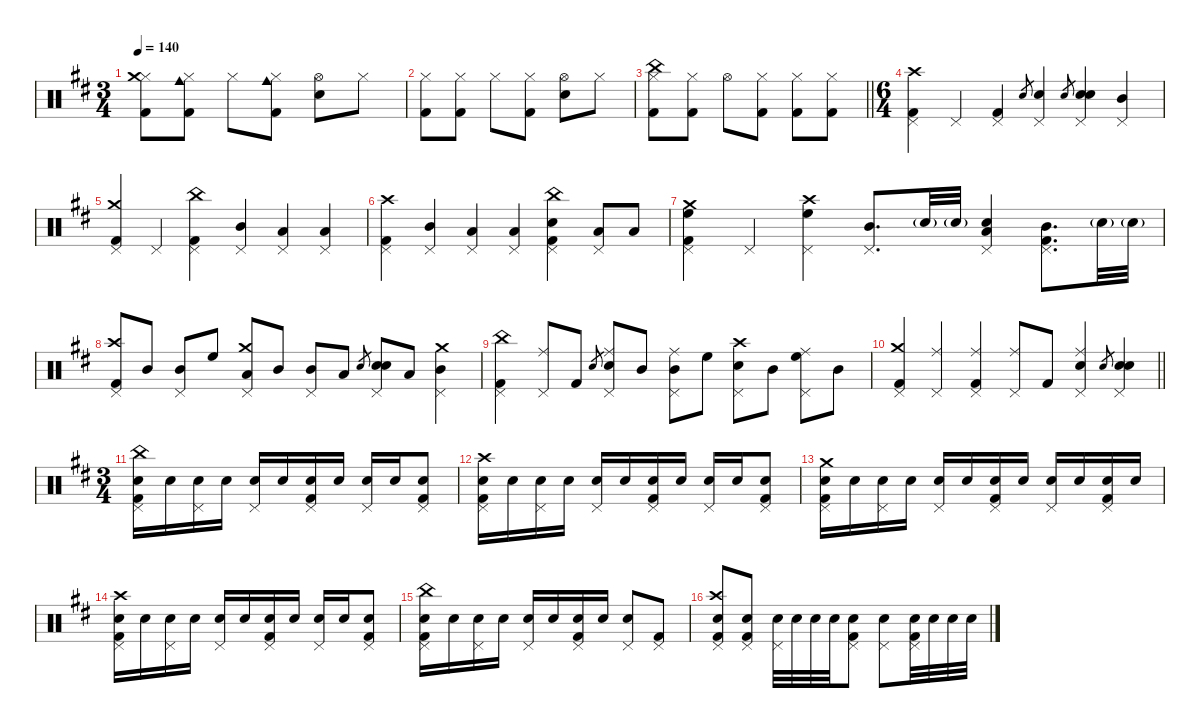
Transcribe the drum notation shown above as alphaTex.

\defaultSystemsLayout 4
\hideDynamics
\bracketExtendMode nobrackets
\singleTrackTrackNamePolicy hidden
\multiTrackTrackNamePolicy hidden
\otherSystemsTrackNameOrientation horizontal
\track ("Percussions" "drm.") {instrument percussion}
\staff {score}
\articulation defaults
\ts (3 4)
\tempo 140
\clef neutral
\ks d
("Hi-Hat (closed)"{acc forcenatural} "Crash medium (hit)"{acc forcenatural} "Kick (hit) 2"{acc forcenatural}).8{dy f beam Down} ("Hi-Hat (closed)"{acc forcenatural} "Cowbell medium (hit)"{acc forcenatural} "Kick (hit) 2"{acc forcenatural}).8{beam Down} "Hi-Hat (closed)"{acc forcenatural}.8{beam Down} ("Hi-Hat (closed)"{acc forcenatural} "Cowbell medium (hit)"{acc forcenatural} "Kick (hit) 2"{acc forcenatural}).8{beam Down} ("Hi-Hat (open)"{acc forcenatural} "Snare (hit) 2"{acc forcenatural}).8{beam Down} "Hi-Hat (closed)"{acc forcenatural}.8{beam Down} |
("Hi-Hat (closed)"{acc forcenatural} "Kick (hit) 2"{acc forcenatural}).8{beam Down} ("Hi-Hat (closed)"{acc forcenatural} "Kick (hit) 2"{acc forcenatural}).8{beam Down} "Hi-Hat (closed)"{acc forcenatural}.8{beam Down} ("Hi-Hat (closed)"{acc forcenatural} "Kick (hit) 2"{acc forcenatural}).8{beam Down} ("Hi-Hat (open)"{acc forcenatural} "Snare (hit) 2"{acc forcenatural}).8{beam Down} "Hi-Hat (closed)"{acc forcenatural}.8{beam Down} |
\barLineRight lightlight
("Hi-Hat (closed)"{acc forcenatural} "China (hit)"{acc forcenatural} "Kick (hit) 2"{acc forcenatural}).8{beam Down} ("Hi-Hat (closed)"{acc forcenatural} "Kick (hit) 2"{acc forcenatural}).8{beam Down} "Hi-Hat (open)"{acc forcenatural}.8{beam Down} ("Hi-Hat (closed)"{acc forcenatural} "Kick (hit) 2"{acc forcenatural}).8{beam Down} ("Hi-Hat (closed)"{acc forcenatural} "Kick (hit) 2"{acc forcenatural}).8{beam Down} ("Hi-Hat (closed)"{acc forcenatural} "Kick (hit) 2"{acc forcenatural}).8{beam Down} |
\ts (6 4)
("Pedal Hi-Hat (hit)"{acc forcenatural} "Crash high (hit)"{acc forcenatural} "Kick (hit) 2"{acc forcenatural}).4{beam Down} "Pedal Hi-Hat (hit)"{acc forcenatural}.4{beam Up} ("Pedal Hi-Hat (hit)"{acc forcenatural} "Kick (hit) 2"{acc forcenatural}).4{beam Up} "Snare (hit) 2"{acc forcenatural}.8{gr dy mf beam Up} ("Pedal Hi-Hat (hit)"{acc forcenatural} "Snare (hit) 2"{acc forcenatural}).4{dy f beam Up} "Snare (hit) 2"{acc forcenatural}.8{gr dy mf beam Up} ("Pedal Hi-Hat (hit)"{acc forcenatural} "Snare (hit) 2"{acc forcenatural} "Snare (hit) 2"{acc forcenatural}).4{dy f beam Up} ("Pedal Hi-Hat (hit)"{acc forcenatural} "Mid Tom (hit)"{acc forcenatural}).4{beam Up} |
("Pedal Hi-Hat (hit)"{acc forcenatural} "Crash medium (hit)"{acc forcenatural} "Kick (hit) 2"{acc forcenatural}).4{beam Up} "Pedal Hi-Hat (hit)"{acc forcenatural}.4{beam Up} ("Pedal Hi-Hat (hit)"{acc forcenatural} "China (hit)"{acc forcenatural} "Kick (hit) 2"{acc forcenatural}).4{beam Down} ("Pedal Hi-Hat (hit)"{acc forcenatural} "Mid Tom (hit)"{acc forcenatural}).4{beam Up} ("Pedal Hi-Hat (hit)"{acc forcenatural} "Low Tom (hit)"{acc forcenatural}).4{beam Up} ("Pedal Hi-Hat (hit)"{acc forcenatural} "Low Tom (hit)"{acc forcenatural}).4{beam Up} |
("Pedal Hi-Hat (hit)"{acc forcenatural} "Crash high (hit)"{acc forcenatural} "Kick (hit) 2"{acc forcenatural}).4{beam Down} ("Pedal Hi-Hat (hit)"{acc forcenatural} "Mid Tom (hit)"{acc forcenatural}).4{beam Up} ("Pedal Hi-Hat (hit)"{acc forcenatural} "Low Tom (hit)"{acc forcenatural}).4{beam Up} ("Pedal Hi-Hat (hit)"{acc forcenatural} "Low Tom (hit)"{acc forcenatural}).4{beam Up} ("Pedal Hi-Hat (hit)"{acc forcenatural} "China (hit)"{acc forcenatural} "Snare (hit) 2"{acc forcenatural} "Kick (hit) 2"{acc forcenatural}).4{beam Down} ("Pedal Hi-Hat (hit)"{acc forcenatural} "Low Tom (hit)"{acc forcenatural}).8{beam Up} "Low Floor Tom (hit)"{acc forcenatural}.8{beam Up} |
("Pedal Hi-Hat (hit)"{acc forcenatural} "Crash medium (hit)"{acc forcenatural} "High Floor Tom (hit)"{acc forcenatural} "Kick (hit) 2"{acc forcenatural}).4{beam Down} "Pedal Hi-Hat (hit)"{acc forcenatural}.4{beam Up} ("Pedal Hi-Hat (hit)"{acc forcenatural} "Crash high (hit)"{acc forcenatural} "High Floor Tom (hit)"{acc forcenatural}).4{beam Down} ("Pedal Hi-Hat (hit)"{acc forcenatural} "Mid Tom (hit)"{acc forcenatural}).8{d beam Up} "Snare (hit) 2"{g acc forcenatural}.32{beam Up} "Snare (hit) 2"{g acc forcenatural}.32{beam Up} ("Pedal Hi-Hat (hit)"{acc forcenatural} "Low Tom (hit)"{acc forcenatural} "Snare (hit) 2"{acc forcenatural}).4{beam Up} ("Pedal Hi-Hat (hit)"{acc forcenatural} "Mid Tom (hit)"{acc forcenatural} "Kick (hit) 2"{acc forcenatural}).8{d beam Down} "Snare (hit) 2"{g acc forcenatural}.32{beam Down} "Snare (hit) 2"{g acc forcenatural}.32{beam Down} |
("Pedal Hi-Hat (hit)"{acc forcenatural} "Crash high (hit)"{acc forcenatural} "Kick (hit) 2"{acc forcenatural}).8{beam Up} "Mid Tom (hit)"{acc forcenatural}.8{beam Up} ("Pedal Hi-Hat (hit)"{acc forcenatural} "Mid Tom (hit)"{acc forcenatural}).8{beam Up} "High Floor Tom (hit)"{acc forcenatural}.8{beam Up} ("Pedal Hi-Hat (hit)"{acc forcenatural} "Crash medium (hit)"{acc forcenatural} "Low Tom (hit)"{acc forcenatural}).8{beam Up} "Mid Tom (hit)"{acc forcenatural}.8{beam Up} ("Pedal Hi-Hat (hit)"{acc forcenatural} "Mid Tom (hit)"{acc forcenatural}).8{beam Up} "Low Floor Tom (hit)"{acc forcenatural}.8{beam Up} "Snare (hit) 2"{acc forcenatural}.8{gr dy mf beam Up} ("Pedal Hi-Hat (hit)"{acc forcenatural} "Snare (hit) 2"{acc forcenatural} "Snare (hit) 2"{acc forcenatural}).8{dy f beam Up} "Low Tom (hit)"{acc forcenatural}.8{beam Up} ("Pedal Hi-Hat (hit)"{acc forcenatural} "Crash medium (hit)"{acc forcenatural} "Mid Tom (hit)"{acc forcenatural}).4{beam Down} |
("Pedal Hi-Hat (hit)"{acc forcenatural} "China (hit)"{acc forcenatural} "Kick (hit) 2"{acc forcenatural}).4{beam Down} ("Pedal Hi-Hat (hit)"{acc forcenatural} "Ride (middle)"{acc forcenatural}).8{beam Up} "Kick (hit) 2"{acc forcenatural}.8{beam Up} "Snare (hit) 2"{acc forcenatural}.8{gr dy mf beam Up} ("Pedal Hi-Hat (hit)"{acc forcenatural} "Ride (middle)"{acc forcenatural} "Snare (hit) 2"{acc forcenatural}).8{dy f beam Up} "Mid Tom (hit)"{acc forcenatural}.8{beam Up} ("Pedal Hi-Hat (hit)"{acc forcenatural} "Ride (middle)"{acc forcenatural} "Mid Tom (hit)"{acc forcenatural}).8{beam Down} "High Floor Tom (hit)"{acc forcenatural}.8{beam Down} ("Pedal Hi-Hat (hit)"{acc forcenatural} "Crash high (hit)"{acc forcenatural} "Snare (hit) 2"{acc forcenatural}).8{beam Down} "Mid Tom (hit)"{acc forcenatural}.8{beam Down} ("Pedal Hi-Hat (hit)"{acc forcenatural} "Ride (middle)"{acc forcenatural} "High Floor Tom (hit)"{acc forcenatural}).8{beam Down} "Mid Tom (hit)"{acc forcenatural}.8{beam Down} |
\barLineRight lightlight
("Pedal Hi-Hat (hit)"{acc forcenatural} "Crash medium (hit)"{acc forcenatural} "Kick (hit) 2"{acc forcenatural}).4{beam Up} ("Pedal Hi-Hat (hit)"{acc forcenatural} "Ride (middle)"{acc forcenatural}).4{beam Up} ("Pedal Hi-Hat (hit)"{acc forcenatural} "Ride (middle)"{acc forcenatural} "Kick (hit) 2"{acc forcenatural}).4{beam Up} ("Pedal Hi-Hat (hit)"{acc forcenatural} "Ride (middle)"{acc forcenatural}).8{beam Up} "Kick (hit) 2"{acc forcenatural}.8{beam Up} ("Pedal Hi-Hat (hit)"{acc forcenatural} "Ride (middle)"{acc forcenatural} "Snare (hit) 2"{acc forcenatural}).4{beam Up} "Snare (hit) 2"{acc forcenatural}.8{gr dy mf beam Up} ("Pedal Hi-Hat (hit)"{acc forcenatural} "Snare (hit) 2"{acc forcenatural} "Snare (hit) 2"{acc forcenatural}).4{dy f beam Up} |
\ts (3 4)
("Pedal Hi-Hat (hit)"{acc forcenatural} "China (hit)"{acc forcenatural} "Snare (hit) 2"{acc forcenatural} "Kick (hit) 2"{acc forcenatural}).16{beam Down} "Snare (hit) 2"{acc forcenatural}.16{beam Down} ("Pedal Hi-Hat (hit)"{acc forcenatural} "Snare (hit) 2"{acc forcenatural}).16{beam Down} "Snare (hit) 2"{acc forcenatural}.16{beam Down} ("Pedal Hi-Hat (hit)"{acc forcenatural} "Snare (hit) 2"{acc forcenatural}).16{beam Up} "Snare (hit) 2"{acc forcenatural}.16{beam Up} ("Pedal Hi-Hat (hit)"{acc forcenatural} "Snare (hit) 2"{acc forcenatural} "Kick (hit) 2"{acc forcenatural}).16{beam Up} "Snare (hit) 2"{acc forcenatural}.16{beam Up} ("Pedal Hi-Hat (hit)"{acc forcenatural} "Snare (hit) 2"{acc forcenatural}).16{beam Up} "Snare (hit) 2"{acc forcenatural}.16{beam Up} ("Pedal Hi-Hat (hit)"{acc forcenatural} "Snare (hit) 2"{acc forcenatural} "Kick (hit) 2"{acc forcenatural}).8{beam Up} |
("Pedal Hi-Hat (hit)"{acc forcenatural} "Crash high (hit)"{acc forcenatural} "Snare (hit) 2"{acc forcenatural} "Kick (hit) 2"{acc forcenatural}).16{beam Down} "Snare (hit) 2"{acc forcenatural}.16{beam Down} ("Pedal Hi-Hat (hit)"{acc forcenatural} "Snare (hit) 2"{acc forcenatural}).16{beam Down} "Snare (hit) 2"{acc forcenatural}.16{beam Down} ("Pedal Hi-Hat (hit)"{acc forcenatural} "Snare (hit) 2"{acc forcenatural}).16{beam Up} "Snare (hit) 2"{acc forcenatural}.16{beam Up} ("Pedal Hi-Hat (hit)"{acc forcenatural} "Snare (hit) 2"{acc forcenatural} "Kick (hit) 2"{acc forcenatural}).16{beam Up} "Snare (hit) 2"{acc forcenatural}.16{beam Up} ("Pedal Hi-Hat (hit)"{acc forcenatural} "Snare (hit) 2"{acc forcenatural}).16{beam Up} "Snare (hit) 2"{acc forcenatural}.16{beam Up} ("Pedal Hi-Hat (hit)"{acc forcenatural} "Snare (hit) 2"{acc forcenatural} "Kick (hit) 2"{acc forcenatural}).8{beam Up} |
("Pedal Hi-Hat (hit)"{acc forcenatural} "Crash medium (hit)"{acc forcenatural} "Snare (hit) 2"{acc forcenatural} "Kick (hit) 2"{acc forcenatural}).16{beam Down} "Snare (hit) 2"{acc forcenatural}.16{beam Down} ("Pedal Hi-Hat (hit)"{acc forcenatural} "Snare (hit) 2"{acc forcenatural}).16{beam Down} "Snare (hit) 2"{acc forcenatural}.16{beam Down} ("Pedal Hi-Hat (hit)"{acc forcenatural} "Snare (hit) 2"{acc forcenatural}).16{beam Up} "Snare (hit) 2"{acc forcenatural}.16{beam Up} ("Pedal Hi-Hat (hit)"{acc forcenatural} "Snare (hit) 2"{acc forcenatural} "Kick (hit) 2"{acc forcenatural}).16{beam Up} "Snare (hit) 2"{acc forcenatural}.16{beam Up} ("Pedal Hi-Hat (hit)"{acc forcenatural} "Snare (hit) 2"{acc forcenatural}).16{beam Up} "Snare (hit) 2"{acc forcenatural}.16{beam Up} ("Pedal Hi-Hat (hit)"{acc forcenatural} "Snare (hit) 2"{acc forcenatural} "Kick (hit) 2"{acc forcenatural}).16{beam Up} "Snare (hit) 2"{acc forcenatural}.16{beam Up} |
("Pedal Hi-Hat (hit)"{acc forcenatural} "Crash high (hit)"{acc forcenatural} "Snare (hit) 2"{acc forcenatural} "Kick (hit) 2"{acc forcenatural}).16{beam Down} "Snare (hit) 2"{acc forcenatural}.16{beam Down} ("Pedal Hi-Hat (hit)"{acc forcenatural} "Snare (hit) 2"{acc forcenatural}).16{beam Down} "Snare (hit) 2"{acc forcenatural}.16{beam Down} ("Pedal Hi-Hat (hit)"{acc forcenatural} "Snare (hit) 2"{acc forcenatural}).16{beam Up} "Snare (hit) 2"{acc forcenatural}.16{beam Up} ("Pedal Hi-Hat (hit)"{acc forcenatural} "Snare (hit) 2"{acc forcenatural} "Kick (hit) 2"{acc forcenatural}).16{beam Up} "Snare (hit) 2"{acc forcenatural}.16{beam Up} ("Pedal Hi-Hat (hit)"{acc forcenatural} "Snare (hit) 2"{acc forcenatural}).16{beam Up} "Snare (hit) 2"{acc forcenatural}.16{beam Up} ("Pedal Hi-Hat (hit)"{acc forcenatural} "Snare (hit) 2"{acc forcenatural} "Kick (hit) 2"{acc forcenatural}).8{beam Up} |
("Pedal Hi-Hat (hit)"{acc forcenatural} "China (hit)"{acc forcenatural} "Snare (hit) 2"{acc forcenatural} "Kick (hit) 2"{acc forcenatural}).16{beam Down} "Snare (hit) 2"{acc forcenatural}.16{beam Down} ("Pedal Hi-Hat (hit)"{acc forcenatural} "Snare (hit) 2"{acc forcenatural}).16{beam Down} "Snare (hit) 2"{acc forcenatural}.16{beam Down} ("Pedal Hi-Hat (hit)"{acc forcenatural} "Snare (hit) 2"{acc forcenatural}).16{beam Up} "Snare (hit) 2"{acc forcenatural}.16{beam Up} ("Pedal Hi-Hat (hit)"{acc forcenatural} "Snare (hit) 2"{acc forcenatural} "Kick (hit) 2"{acc forcenatural}).16{beam Up} "Snare (hit) 2"{acc forcenatural}.16{beam Up} ("Pedal Hi-Hat (hit)"{acc forcenatural} "Snare (hit) 2"{acc forcenatural}).8{beam Up} ("Pedal Hi-Hat (hit)"{acc forcenatural} "Kick (hit) 2"{acc forcenatural}).8{beam Up} |
("Pedal Hi-Hat (hit)"{acc forcenatural} "Crash high (hit)"{acc forcenatural} "Snare (hit) 2"{acc forcenatural} "Kick (hit) 2"{acc forcenatural}).8{beam Up} ("Pedal Hi-Hat (hit)"{acc forcenatural} "Snare (hit) 2"{acc forcenatural} "Kick (hit) 2"{acc forcenatural}).8{beam Up} ("Pedal Hi-Hat (hit)"{acc forcenatural} "Snare (hit) 2"{acc forcenatural}).32{beam Down} "Snare (hit) 2"{acc forcenatural}.32{beam Down} "Snare (hit) 2"{acc forcenatural}.32{beam Down} "Snare (hit) 2"{acc forcenatural}.32{beam Down} ("Pedal Hi-Hat (hit)"{acc forcenatural} "Snare (hit) 2"{acc forcenatural} "Kick (hit) 2"{acc forcenatural}).8{beam Down} ("Pedal Hi-Hat (hit)"{acc forcenatural} "Snare (hit) 2"{acc forcenatural}).8{beam Down} ("Pedal Hi-Hat (hit)"{acc forcenatural} "Snare (hit) 2"{acc forcenatural} "Kick (hit) 2"{acc forcenatural}).32{beam Down} "Snare (hit) 2"{acc forcenatural}.32{beam Down} "Snare (hit) 2"{acc forcenatural}.32{beam Down} "Snare (hit) 2"{acc forcenatural}.32{beam Down}
